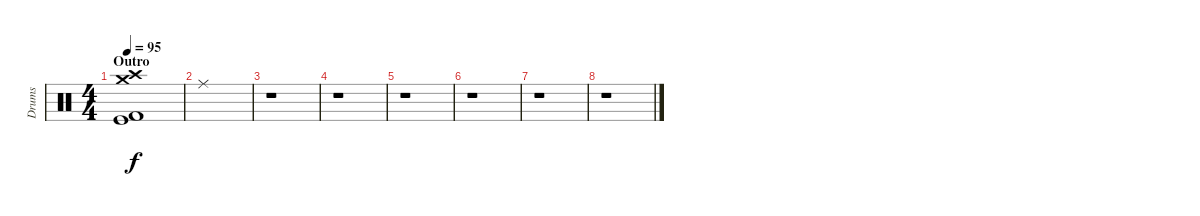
\track ("Drums" "Drums") {instrument percussion}
\staff {score}
\articulation defaults
\ts (4 4)
\section ("" "Outro")
\tempo 95
\clef neutral
\ks c
("Kick (hit) 2" "Kick (hit)" "Crash medium (hit)" "Crash high (hit)").1{dy f} |
"Ride (middle)".1 |
r.1 |
r.1 |
r.1 |
r.1 |
r.1 |
r.1
